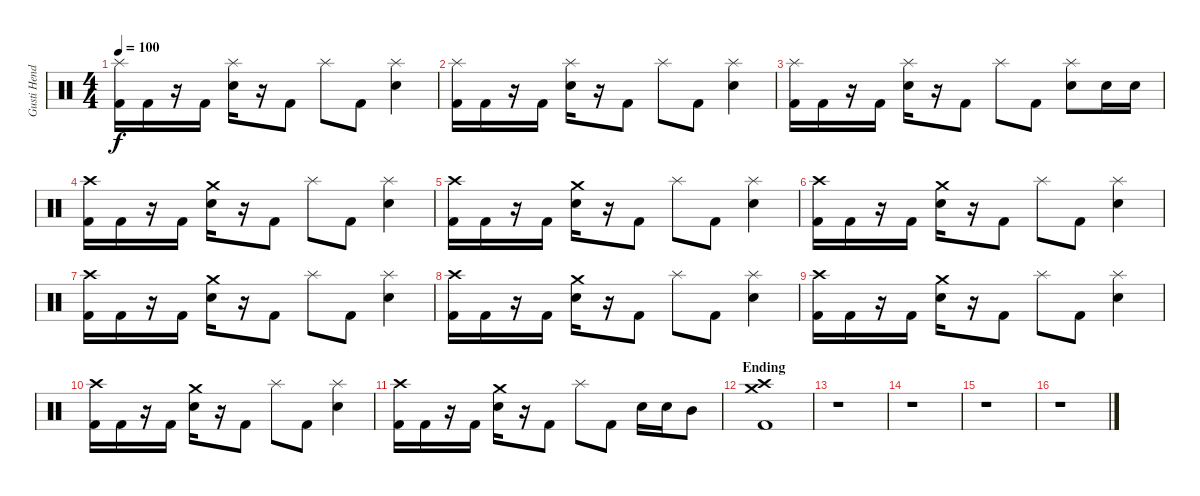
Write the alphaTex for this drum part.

\track ("Gusti Hendy" "Gusti Hend") {instrument percussion}
\staff {score}
\articulation defaults
\ts (4 4)
\tempo 100
\clef neutral
\ks c
("Splash (hit)" "Kick (hit) 2").16{dy f} "Kick (hit) 2".16 r.16 "Kick (hit) 2".16 ("Splash (hit)" "Electric Snare (hit)").16 r.16 "Kick (hit) 2".8 "Splash (hit)".8 "Kick (hit) 2".8 ("Splash (hit)" "Electric Snare (hit)").4 |
("Splash (hit)" "Kick (hit) 2").16 "Kick (hit) 2".16 r.16 "Kick (hit) 2".16 ("Splash (hit)" "Electric Snare (hit)").16 r.16 "Kick (hit) 2".8 "Splash (hit)".8 "Kick (hit) 2".8 ("Splash (hit)" "Electric Snare (hit)").4 |
("Splash (hit)" "Kick (hit) 2").16 "Kick (hit) 2".16 r.16 "Kick (hit) 2".16 ("Splash (hit)" "Electric Snare (hit)").16 r.16 "Kick (hit) 2".8 "Splash (hit)".8 "Kick (hit) 2".8 ("Splash (hit)" "Electric Snare (hit)").8 "Electric Snare (hit)".16 "Electric Snare (hit)".16 |
("Crash high (hit)" "Kick (hit) 2").16 "Kick (hit) 2".16 r.16 "Kick (hit) 2".16 ("Crash medium (hit)" "Electric Snare (hit)").16 r.16 "Kick (hit) 2".8 "Splash (hit)".8 "Kick (hit) 2".8 ("Splash (hit)" "Electric Snare (hit)").4 |
("Crash high (hit)" "Kick (hit) 2").16 "Kick (hit) 2".16 r.16 "Kick (hit) 2".16 ("Crash medium (hit)" "Electric Snare (hit)").16 r.16 "Kick (hit) 2".8 "Splash (hit)".8 "Kick (hit) 2".8 ("Splash (hit)" "Electric Snare (hit)").4 |
("Crash high (hit)" "Kick (hit) 2").16 "Kick (hit) 2".16 r.16 "Kick (hit) 2".16 ("Crash medium (hit)" "Electric Snare (hit)").16 r.16 "Kick (hit) 2".8 "Splash (hit)".8 "Kick (hit) 2".8 ("Splash (hit)" "Electric Snare (hit)").4 |
("Crash high (hit)" "Kick (hit) 2").16 "Kick (hit) 2".16 r.16 "Kick (hit) 2".16 ("Crash medium (hit)" "Electric Snare (hit)").16 r.16 "Kick (hit) 2".8 "Splash (hit)".8 "Kick (hit) 2".8 ("Splash (hit)" "Electric Snare (hit)").4 |
("Crash high (hit)" "Kick (hit) 2").16 "Kick (hit) 2".16 r.16 "Kick (hit) 2".16 ("Crash medium (hit)" "Electric Snare (hit)").16 r.16 "Kick (hit) 2".8 "Splash (hit)".8 "Kick (hit) 2".8 ("Splash (hit)" "Electric Snare (hit)").4 |
("Crash high (hit)" "Kick (hit) 2").16 "Kick (hit) 2".16 r.16 "Kick (hit) 2".16 ("Crash medium (hit)" "Electric Snare (hit)").16 r.16 "Kick (hit) 2".8 "Splash (hit)".8 "Kick (hit) 2".8 ("Splash (hit)" "Electric Snare (hit)").4 |
("Crash high (hit)" "Kick (hit) 2").16 "Kick (hit) 2".16 r.16 "Kick (hit) 2".16 ("Crash medium (hit)" "Electric Snare (hit)").16 r.16 "Kick (hit) 2".8 "Splash (hit)".8 "Kick (hit) 2".8 ("Splash (hit)" "Electric Snare (hit)").4 |
("Crash high (hit)" "Kick (hit) 2").16 "Kick (hit) 2".16 r.16 "Kick (hit) 2".16 ("Crash medium (hit)" "Electric Snare (hit)").16 r.16 "Kick (hit) 2".8 "Splash (hit)".8 "Kick (hit) 2".8 "Electric Snare (hit)".16 "Electric Snare (hit)".16 "Mid Tom (hit)".8 |
\section ("" "Ending")
("Crash high (hit)" "Crash medium (hit)" "Kick (hit) 2").1 |
r.1 |
r.1 |
r.1 |
r.1
